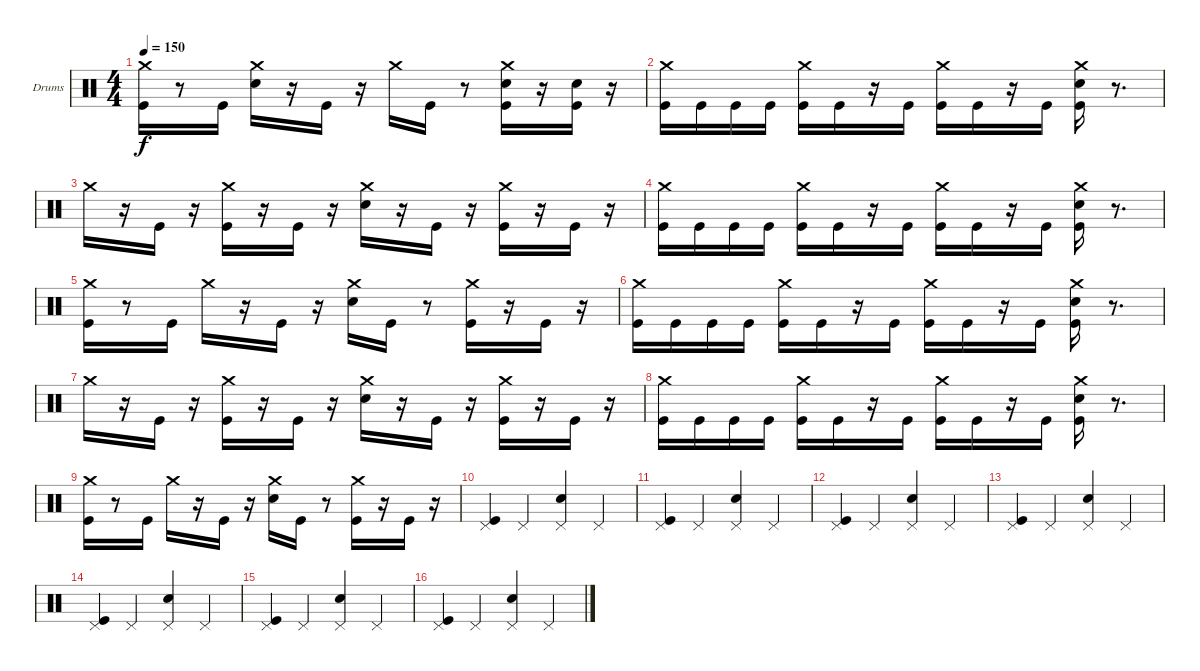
\bracketExtendMode groupsimilarinstruments
\firstSystemTrackNameOrientation horizontal
\otherSystemsTrackNameOrientation horizontal
\track ("Rolo" "Drums") {instrument percussion}
\staff {score}
\articulation defaults
\ts (4 4)
\tempo 150
\clef neutral
\ks c
("Crash medium (hit)" "Kick (hit)").16{dy f} r.8 "Kick (hit)".16 ("Crash medium (hit)" "Snare (hit) 2").16 r.16 "Kick (hit)".16 r.16 "Crash medium (hit)".16 "Kick (hit)".16 r.8 ("Crash medium (hit)" "Snare (hit) 2" "Kick (hit)").16 r.16 ("Snare (hit) 2" "Kick (hit)").16 r.16 |
("Crash medium (hit)" "Kick (hit)").16 "Kick (hit)".16 "Kick (hit)".16 "Kick (hit)".16 ("Crash medium (hit)" "Kick (hit)").16 "Kick (hit)".16 r.16 "Kick (hit)".16 ("Crash medium (hit)" "Kick (hit)").16 "Kick (hit)".16 r.16 "Kick (hit)".16 ("Crash medium (hit)" "Snare (hit) 2" "Kick (hit)").16 r.8{d} |
"Crash medium (hit)".16 r.16 "Kick (hit)".16 r.16 ("Crash medium (hit)" "Kick (hit)").16 r.16 "Kick (hit)".16 r.16 ("Crash medium (hit)" "Snare (hit) 2").16 r.16 "Kick (hit)".16 r.16 ("Crash medium (hit)" "Kick (hit)").16 r.16 "Kick (hit)".16 r.16 |
("Crash medium (hit)" "Kick (hit)").16 "Kick (hit)".16 "Kick (hit)".16 "Kick (hit)".16 ("Crash medium (hit)" "Kick (hit)").16 "Kick (hit)".16 r.16 "Kick (hit)".16 ("Crash medium (hit)" "Kick (hit)").16 "Kick (hit)".16 r.16 "Kick (hit)".16 ("Crash medium (hit)" "Snare (hit) 2" "Kick (hit)").16 r.8{d} |
("Crash medium (hit)" "Kick (hit)").16 r.8 "Kick (hit)".16 "Crash medium (hit)".16 r.16 "Kick (hit)".16 r.16 ("Crash medium (hit)" "Snare (hit) 2").16 "Kick (hit)".16 r.8 ("Crash medium (hit)" "Kick (hit)").16 r.16 "Kick (hit)".16 r.16 |
("Crash medium (hit)" "Kick (hit)").16 "Kick (hit)".16 "Kick (hit)".16 "Kick (hit)".16 ("Crash medium (hit)" "Kick (hit)").16 "Kick (hit)".16 r.16 "Kick (hit)".16 ("Crash medium (hit)" "Kick (hit)").16 "Kick (hit)".16 r.16 "Kick (hit)".16 ("Crash medium (hit)" "Snare (hit) 2" "Kick (hit)").16 r.8{d} |
"Crash medium (hit)".16 r.16 "Kick (hit)".16 r.16 ("Crash medium (hit)" "Kick (hit)").16 r.16 "Kick (hit)".16 r.16 ("Crash medium (hit)" "Snare (hit) 2").16 r.16 "Kick (hit)".16 r.16 ("Crash medium (hit)" "Kick (hit)").16 r.16 "Kick (hit)".16 r.16 |
("Crash medium (hit)" "Kick (hit)").16 "Kick (hit)".16 "Kick (hit)".16 "Kick (hit)".16 ("Crash medium (hit)" "Kick (hit)").16 "Kick (hit)".16 r.16 "Kick (hit)".16 ("Crash medium (hit)" "Kick (hit)").16 "Kick (hit)".16 r.16 "Kick (hit)".16 ("Crash medium (hit)" "Snare (hit) 2" "Kick (hit)").16 r.8{d} |
("Crash medium (hit)" "Kick (hit)").16 r.8 "Kick (hit)".16 "Crash medium (hit)".16 r.16 "Kick (hit)".16 r.16 ("Crash medium (hit)" "Snare (hit) 2").16 "Kick (hit)".16 r.8 ("Crash medium (hit)" "Kick (hit)").16 r.16 "Kick (hit)".16 r.16 |
("Pedal Hi-Hat (hit)" "Kick (hit)").4 "Pedal Hi-Hat (hit)".4 ("Pedal Hi-Hat (hit)" "Snare (hit) 2").4 "Pedal Hi-Hat (hit)".4 |
("Pedal Hi-Hat (hit)" "Kick (hit)").4 "Pedal Hi-Hat (hit)".4 ("Pedal Hi-Hat (hit)" "Snare (hit) 2").4 "Pedal Hi-Hat (hit)".4 |
("Pedal Hi-Hat (hit)" "Kick (hit)").4 "Pedal Hi-Hat (hit)".4 ("Pedal Hi-Hat (hit)" "Snare (hit) 2").4 "Pedal Hi-Hat (hit)".4 |
("Pedal Hi-Hat (hit)" "Kick (hit)").4 "Pedal Hi-Hat (hit)".4 ("Pedal Hi-Hat (hit)" "Snare (hit) 2").4 "Pedal Hi-Hat (hit)".4 |
("Pedal Hi-Hat (hit)" "Kick (hit)").4 "Pedal Hi-Hat (hit)".4 ("Pedal Hi-Hat (hit)" "Snare (hit) 2").4 "Pedal Hi-Hat (hit)".4 |
("Pedal Hi-Hat (hit)" "Kick (hit)").4 "Pedal Hi-Hat (hit)".4 ("Pedal Hi-Hat (hit)" "Snare (hit) 2").4 "Pedal Hi-Hat (hit)".4 |
("Pedal Hi-Hat (hit)" "Kick (hit)").4 "Pedal Hi-Hat (hit)".4 ("Pedal Hi-Hat (hit)" "Snare (hit) 2").4 "Pedal Hi-Hat (hit)".4
